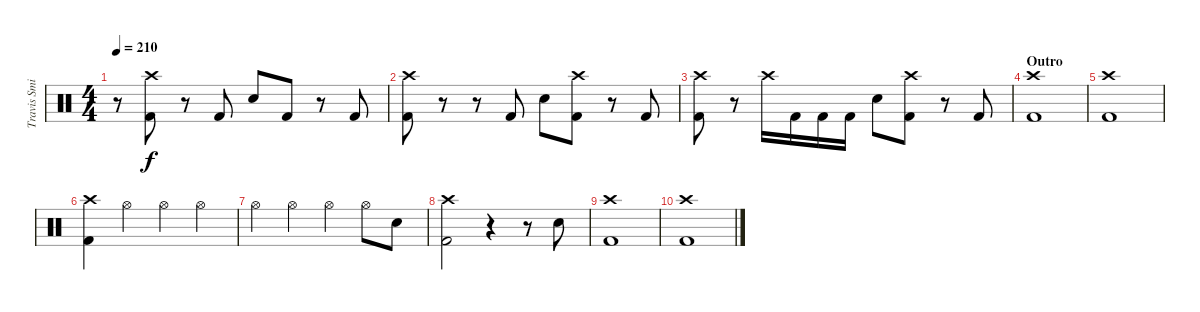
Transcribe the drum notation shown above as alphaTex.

\track ("Travis Smith" "Travis Smi") {instrument percussion}
\staff {score}
\articulation defaults
\ts (4 4)
\tempo 210
\clef neutral
\ks c
r.8{dy f} ("Crash high (hit)" "Kick (hit) 2").8 r.8 "Kick (hit) 2".8 "Electric Snare (hit)".8 "Kick (hit) 2".8 r.8 "Kick (hit) 2".8 |
("Crash high (hit)" "Kick (hit) 2").8 r.8 r.8 "Kick (hit) 2".8 "Electric Snare (hit)".8 ("Crash high (hit)" "Kick (hit) 2").8 r.8 "Kick (hit) 2".8 |
("Crash high (hit)" "Kick (hit) 2").8 r.8 "Crash high (hit)".16 "Kick (hit) 2".16 "Kick (hit) 2".16 "Kick (hit) 2".16 "Electric Snare (hit)".8 ("Crash high (hit)" "Kick (hit) 2").8 r.8 "Kick (hit) 2".8 |
\section ("" "Outro")
("Crash high (hit)" "Kick (hit) 2").1 |
("Crash high (hit)" "Kick (hit) 2").1 |
("Crash high (hit)" "Kick (hit) 2").4 "Hi-Hat (open)".4 "Hi-Hat (open)".4 "Hi-Hat (open)".4 |
"Hi-Hat (open)".4 "Hi-Hat (open)".4 "Hi-Hat (open)".4 "Hi-Hat (open)".8 "Electric Snare (hit)".8 |
("Crash high (hit)" "Kick (hit) 2").2 r.4 r.8 "Electric Snare (hit)".8 |
("Crash high (hit)" "Kick (hit) 2").1 |
("Crash high (hit)" "Kick (hit) 2").1
